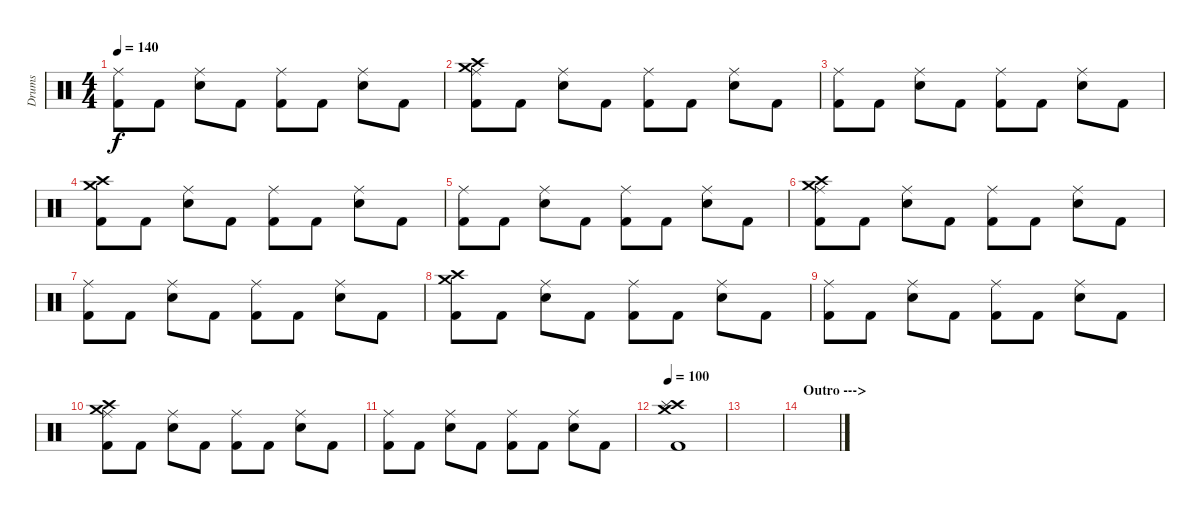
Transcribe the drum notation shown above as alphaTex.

\track ("Drums" "Drums") {instrument percussion}
\staff {score}
\articulation defaults
\ts (4 4)
\tempo 140
\clef neutral
\ks c
("Ride (middle)" "Kick (hit) 2").8{dy f} "Kick (hit) 2".8 ("Ride (middle)" "Electric Snare (hit)").8 "Kick (hit) 2".8 ("Ride (middle)" "Kick (hit) 2").8 "Kick (hit) 2".8 ("Ride (middle)" "Electric Snare (hit)").8 "Kick (hit) 2".8 |
("Ride (middle)" "Crash high (hit)" "Crash medium (hit)" "Kick (hit) 2").8 "Kick (hit) 2".8 ("Ride (middle)" "Electric Snare (hit)").8 "Kick (hit) 2".8 ("Ride (middle)" "Kick (hit) 2").8 "Kick (hit) 2".8 ("Ride (middle)" "Electric Snare (hit)").8 "Kick (hit) 2".8 |
("Ride (middle)" "Kick (hit) 2").8 "Kick (hit) 2".8 ("Ride (middle)" "Electric Snare (hit)").8 "Kick (hit) 2".8 ("Ride (middle)" "Kick (hit) 2").8 "Kick (hit) 2".8 ("Ride (middle)" "Electric Snare (hit)").8 "Kick (hit) 2".8 |
("Crash medium (hit)" "Crash high (hit)" "Kick (hit) 2").8 "Kick (hit) 2".8 ("Ride (middle)" "Electric Snare (hit)").8 "Kick (hit) 2".8 ("Ride (middle)" "Kick (hit) 2").8 "Kick (hit) 2".8 ("Ride (middle)" "Electric Snare (hit)").8 "Kick (hit) 2".8 |
("Ride (middle)" "Kick (hit) 2").8 "Kick (hit) 2".8 ("Ride (middle)" "Electric Snare (hit)").8 "Kick (hit) 2".8 ("Ride (middle)" "Kick (hit) 2").8 "Kick (hit) 2".8 ("Ride (middle)" "Electric Snare (hit)").8 "Kick (hit) 2".8 |
("Ride (middle)" "Crash high (hit)" "Crash medium (hit)" "Kick (hit) 2").8 "Kick (hit) 2".8 ("Ride (middle)" "Electric Snare (hit)").8 "Kick (hit) 2".8 ("Ride (middle)" "Kick (hit) 2").8 "Kick (hit) 2".8 ("Ride (middle)" "Electric Snare (hit)").8 "Kick (hit) 2".8 |
("Ride (middle)" "Kick (hit) 2").8 "Kick (hit) 2".8 ("Ride (middle)" "Electric Snare (hit)").8 "Kick (hit) 2".8 ("Ride (middle)" "Kick (hit) 2").8 "Kick (hit) 2".8 ("Ride (middle)" "Electric Snare (hit)").8 "Kick (hit) 2".8 |
("Crash medium (hit)" "Crash high (hit)" "Kick (hit) 2").8 "Kick (hit) 2".8 ("Ride (middle)" "Electric Snare (hit)").8 "Kick (hit) 2".8 ("Ride (middle)" "Kick (hit) 2").8 "Kick (hit) 2".8 ("Ride (middle)" "Electric Snare (hit)").8 "Kick (hit) 2".8 |
("Ride (middle)" "Kick (hit) 2").8 "Kick (hit) 2".8 ("Ride (middle)" "Electric Snare (hit)").8 "Kick (hit) 2".8 ("Ride (middle)" "Kick (hit) 2").8 "Kick (hit) 2".8 ("Ride (middle)" "Electric Snare (hit)").8 "Kick (hit) 2".8 |
("Ride (middle)" "Crash high (hit)" "Crash medium (hit)" "Kick (hit) 2").8 "Kick (hit) 2".8 ("Ride (middle)" "Electric Snare (hit)").8 "Kick (hit) 2".8 ("Ride (middle)" "Kick (hit) 2").8 "Kick (hit) 2".8 ("Ride (middle)" "Electric Snare (hit)").8 "Kick (hit) 2".8 |
("Ride (middle)" "Kick (hit) 2").8 "Kick (hit) 2".8 ("Ride (middle)" "Electric Snare (hit)").8 "Kick (hit) 2".8 ("Ride (middle)" "Kick (hit) 2").8 "Kick (hit) 2".8 ("Ride (middle)" "Electric Snare (hit)").8 "Kick (hit) 2".8 |
\tempo 100
("Crash medium (hit)" "Crash high (hit)" "Splash (hit)" "Kick (hit) 2").1 |
|
\section ("" "Outro --->")
